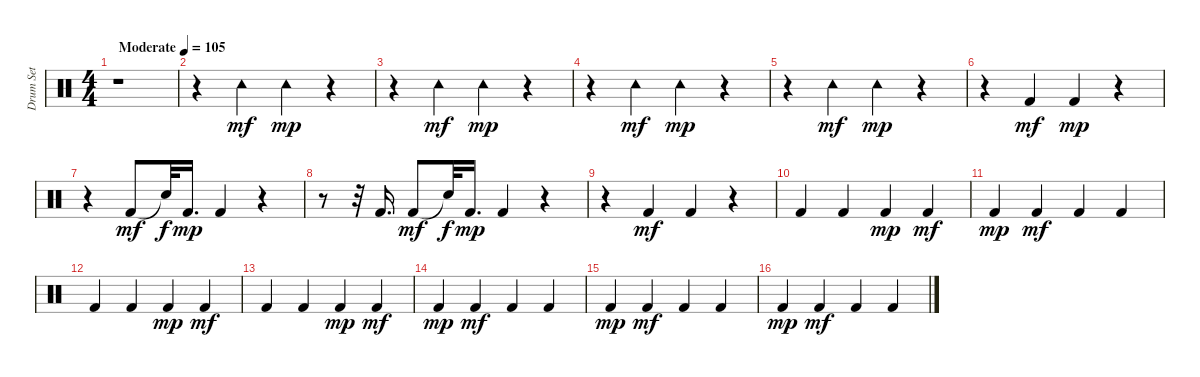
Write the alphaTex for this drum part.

\track ("Drum Set" "Drum Set") {instrument percussion}
\staff {score}
\articulation defaults
\ts (4 4)
\tempo (105 "Moderate")
\tempo 104
\tempo (105 "Moderate")
\clef neutral
\ks c
r.1{dy mf} |
r.4 "Tambourine (hit)".4 "Tambourine (hit)".4{dy mp} r.4 |
r.4 "Tambourine (hit)".4{dy mf} "Tambourine (hit)".4{dy mp} r.4 |
r.4 "Tambourine (hit)".4{dy mf} "Tambourine (hit)".4{dy mp} r.4 |
r.4 "Tambourine (hit)".4{dy mf} "Tambourine (hit)".4{dy mp} r.4 |
r.4 "Kick (hit) 2".4{dy mf} "Kick (hit) 2".4{dy mp} r.4 |
r.4 "Kick (hit) 2".8{dy mf} "Snare (hit)"{t}.32{dy f} "Kick (hit) 2".16{d dy mp} "Kick (hit) 2".4 r.4 |
r.8 r.32 "Kick (hit) 2".16{d} "Kick (hit) 2".8{dy mf} "Snare (hit)"{t}.32{dy f} "Kick (hit) 2".16{d dy mp} "Kick (hit) 2".4 r.4 |
r.4 "Kick (hit) 2".4{dy mf} "Kick (hit) 2".4 r.4 |
"Kick (hit) 2".4 "Kick (hit) 2".4 "Kick (hit) 2".4{dy mp} "Kick (hit) 2".4{dy mf} |
"Kick (hit) 2".4{dy mp} "Kick (hit) 2".4{dy mf} "Kick (hit) 2".4 "Kick (hit) 2".4 |
"Kick (hit) 2".4 "Kick (hit) 2".4 "Kick (hit) 2".4{dy mp} "Kick (hit) 2".4{dy mf} |
"Kick (hit) 2".4 "Kick (hit) 2".4 "Kick (hit) 2".4{dy mp} "Kick (hit) 2".4{dy mf} |
"Kick (hit) 2".4{dy mp} "Kick (hit) 2".4{dy mf} "Kick (hit) 2".4 "Kick (hit) 2".4 |
"Kick (hit) 2".4{dy mp} "Kick (hit) 2".4{dy mf} "Kick (hit) 2".4 "Kick (hit) 2".4 |
"Kick (hit) 2".4{dy mp} "Kick (hit) 2".4{dy mf} "Kick (hit) 2".4 "Kick (hit) 2".4
